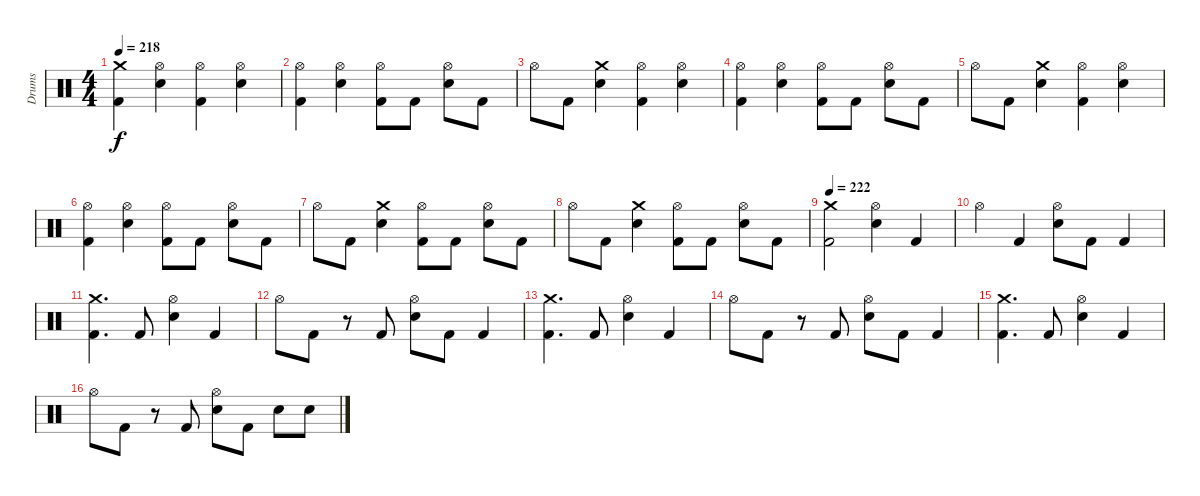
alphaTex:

\track ("Drums" "Drums") {instrument percussion}
\staff {score}
\articulation defaults
\ts (4 4)
\tempo 218
\clef neutral
\ks c
("Kick (hit) 2" "Crash medium (hit)").4{dy f} ("Snare (hit) 2" "Hi-Hat (open)").4 ("Kick (hit) 2" "Hi-Hat (open)").4 ("Snare (hit) 2" "Hi-Hat (open)").4 |
("Kick (hit) 2" "Hi-Hat (open)").4 ("Snare (hit) 2" "Hi-Hat (open)").4 ("Kick (hit) 2" "Hi-Hat (open)").8 "Kick (hit) 2".8 ("Snare (hit) 2" "Hi-Hat (open)").8 "Kick (hit) 2".8 |
"Hi-Hat (open)".8 "Kick (hit) 2".8 ("Snare (hit) 2" "Crash medium (hit)").4 ("Kick (hit) 2" "Hi-Hat (open)").4 ("Snare (hit) 2" "Hi-Hat (open)").4 |
("Kick (hit) 2" "Hi-Hat (open)").4 ("Snare (hit) 2" "Hi-Hat (open)").4 ("Kick (hit) 2" "Hi-Hat (open)").8 "Kick (hit) 2".8 ("Snare (hit) 2" "Hi-Hat (open)").8 "Kick (hit) 2".8 |
"Hi-Hat (open)".8 "Kick (hit) 2".8 ("Snare (hit) 2" "Crash medium (hit)").4 ("Kick (hit) 2" "Hi-Hat (open)").4 ("Snare (hit) 2" "Hi-Hat (open)").4 |
("Kick (hit) 2" "Hi-Hat (open)").4 ("Snare (hit) 2" "Hi-Hat (open)").4 ("Kick (hit) 2" "Hi-Hat (open)").8 "Kick (hit) 2".8 ("Snare (hit) 2" "Hi-Hat (open)").8 "Kick (hit) 2".8 |
"Hi-Hat (open)".8 "Kick (hit) 2".8 ("Snare (hit) 2" "Crash medium (hit)").4 ("Kick (hit) 2" "Hi-Hat (open)").8 "Kick (hit) 2".8 ("Snare (hit) 2" "Hi-Hat (open)").8 "Kick (hit) 2".8 |
"Hi-Hat (open)".8 "Kick (hit) 2".8 ("Snare (hit) 2" "Crash medium (hit)").4 ("Kick (hit) 2" "Hi-Hat (open)").8 "Kick (hit) 2".8 ("Snare (hit) 2" "Hi-Hat (open)").8 "Kick (hit) 2".8 |
\tempo 222
("Kick (hit) 2" "Crash medium (hit)").2 ("Snare (hit) 2" "Hi-Hat (open)").4 "Kick (hit) 2".4 |
"Hi-Hat (open)".4 "Kick (hit) 2".4 ("Snare (hit) 2" "Hi-Hat (open)").8 "Kick (hit) 2".8 "Kick (hit) 2".4 |
("Kick (hit) 2" "Crash medium (hit)").4{d} "Kick (hit) 2".8 ("Snare (hit) 2" "Hi-Hat (open)").4 "Kick (hit) 2".4 |
"Hi-Hat (open)".8 "Kick (hit) 2".8 r.8 "Kick (hit) 2".8 ("Snare (hit) 2" "Hi-Hat (open)").8 "Kick (hit) 2".8 "Kick (hit) 2".4 |
("Kick (hit) 2" "Crash medium (hit)").4{d} "Kick (hit) 2".8 ("Snare (hit) 2" "Hi-Hat (open)").4 "Kick (hit) 2".4 |
"Hi-Hat (open)".8 "Kick (hit) 2".8 r.8 "Kick (hit) 2".8 ("Snare (hit) 2" "Hi-Hat (open)").8 "Kick (hit) 2".8 "Kick (hit) 2".4 |
("Kick (hit) 2" "Crash medium (hit)").4{d} "Kick (hit) 2".8 ("Snare (hit) 2" "Hi-Hat (open)").4 "Kick (hit) 2".4 |
"Hi-Hat (open)".8 "Kick (hit) 2".8 r.8 "Kick (hit) 2".8 ("Snare (hit) 2" "Hi-Hat (open)").8 "Kick (hit) 2".8 "Snare (hit) 2".8 "Snare (hit) 2".8
